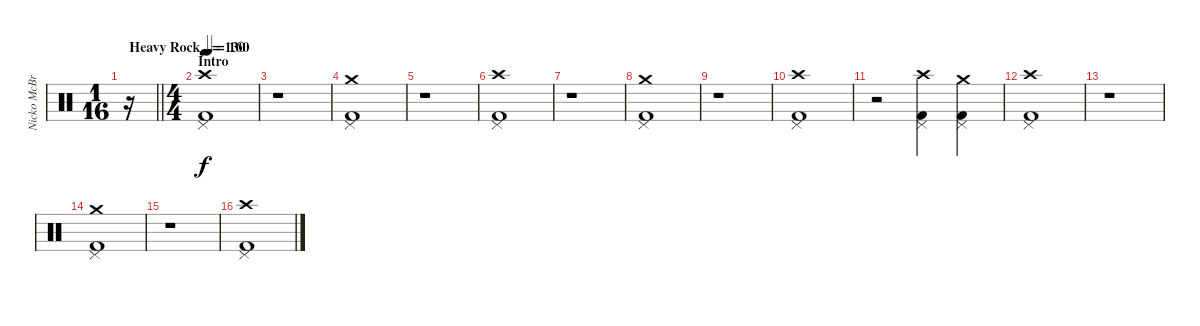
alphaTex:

\track ("Nicko McBrain" "Nicko McBr") {instrument percussion}
\staff {score}
\articulation defaults
\ts (1 16)
\tempo (160 "Heavy Rock")
\clef neutral
\barLineRight lightlight
\ks c
r.16{dy f} |
\ts (4 4)
\section ("" "Intro")
\tempo 130
("Kick (hit) 2" "Pedal Hi-Hat (hit)" "Crash high (hit)").1 |
r.1 |
("Kick (hit) 2" "Pedal Hi-Hat (hit)" "Crash medium (hit)").1 |
r.1 |
("Kick (hit) 2" "Pedal Hi-Hat (hit)" "Crash high (hit)").1 |
r.1 |
("Kick (hit) 2" "Pedal Hi-Hat (hit)" "Crash medium (hit)").1 |
r.1 |
("Kick (hit) 2" "Pedal Hi-Hat (hit)" "Crash high (hit)").1 |
r.2 ("Kick (hit) 2" "Pedal Hi-Hat (hit)" "Crash high (hit)").4 ("Kick (hit) 2" "Pedal Hi-Hat (hit)" "Crash medium (hit)").4 |
("Kick (hit) 2" "Pedal Hi-Hat (hit)" "Crash high (hit)").1 |
r.1 |
("Kick (hit) 2" "Pedal Hi-Hat (hit)" "Crash medium (hit)").1 |
r.1 |
("Kick (hit) 2" "Pedal Hi-Hat (hit)" "Crash high (hit)").1
